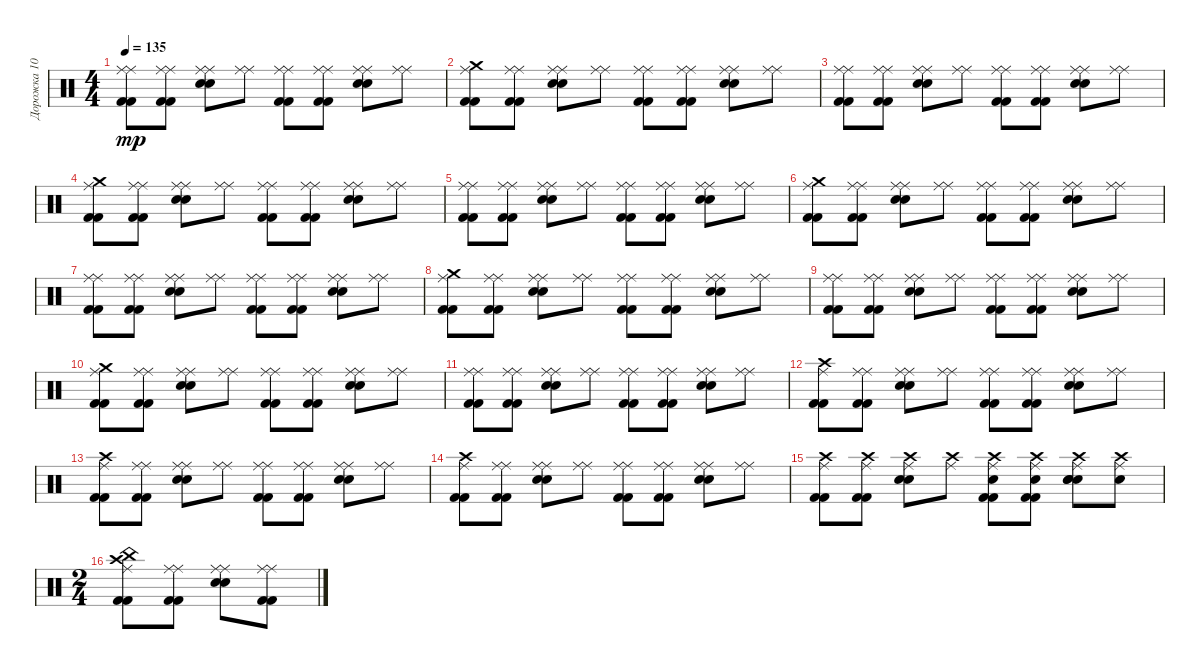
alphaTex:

\track ("Дорожка 10" "Дорожка 10") {instrument percussion}
\staff {score}
\articulation defaults
\ts (4 4)
\tempo 135
\clef neutral
\ks c
("Kick (hit) 2" "Ride (middle)" "Kick (hit) 2" "Ride (middle)").8{dy mp} ("Kick (hit) 2" "Ride (middle)" "Kick (hit) 2" "Ride (middle)").8 ("Snare (hit) 2" "Ride (middle)" "Snare (hit) 2" "Ride (middle)").8 ("Ride (middle)" "Ride (middle)").8 ("Kick (hit) 2" "Ride (middle)" "Kick (hit) 2" "Ride (middle)").8 ("Kick (hit) 2" "Ride (middle)" "Kick (hit) 2" "Ride (middle)").8 ("Snare (hit) 2" "Ride (middle)" "Snare (hit) 2" "Ride (middle)").8 ("Ride (middle)" "Ride (middle)").8 |
("Kick (hit) 2" "Ride (middle)" "Kick (hit) 2" "Crash medium (hit)").8 ("Kick (hit) 2" "Ride (middle)" "Kick (hit) 2" "Ride (middle)").8 ("Snare (hit) 2" "Ride (middle)" "Snare (hit) 2" "Ride (middle)").8 ("Ride (middle)" "Ride (middle)").8 ("Kick (hit) 2" "Ride (middle)" "Kick (hit) 2" "Ride (middle)").8 ("Kick (hit) 2" "Ride (middle)" "Kick (hit) 2" "Ride (middle)").8 ("Snare (hit) 2" "Ride (middle)" "Snare (hit) 2" "Ride (middle)").8 ("Ride (middle)" "Ride (middle)").8 |
("Kick (hit) 2" "Ride (middle)" "Kick (hit) 2" "Ride (middle)").8 ("Kick (hit) 2" "Ride (middle)" "Kick (hit) 2" "Ride (middle)").8 ("Snare (hit) 2" "Ride (middle)" "Snare (hit) 2" "Ride (middle)").8 ("Ride (middle)" "Ride (middle)").8 ("Kick (hit) 2" "Ride (middle)" "Kick (hit) 2" "Ride (middle)").8 ("Kick (hit) 2" "Ride (middle)" "Kick (hit) 2" "Ride (middle)").8 ("Snare (hit) 2" "Ride (middle)" "Snare (hit) 2" "Ride (middle)").8 ("Ride (middle)" "Ride (middle)").8 |
("Kick (hit) 2" "Ride (middle)" "Kick (hit) 2" "Crash medium (hit)").8 ("Kick (hit) 2" "Ride (middle)" "Kick (hit) 2" "Ride (middle)").8 ("Snare (hit) 2" "Ride (middle)" "Snare (hit) 2" "Ride (middle)").8 ("Ride (middle)" "Ride (middle)").8 ("Kick (hit) 2" "Ride (middle)" "Kick (hit) 2" "Ride (middle)").8 ("Kick (hit) 2" "Ride (middle)" "Kick (hit) 2" "Ride (middle)").8 ("Snare (hit) 2" "Ride (middle)" "Snare (hit) 2" "Ride (middle)").8 ("Ride (middle)" "Ride (middle)").8 |
("Kick (hit) 2" "Ride (middle)" "Kick (hit) 2" "Ride (middle)").8 ("Kick (hit) 2" "Ride (middle)" "Kick (hit) 2" "Ride (middle)").8 ("Snare (hit) 2" "Ride (middle)" "Snare (hit) 2" "Ride (middle)").8 ("Ride (middle)" "Ride (middle)").8 ("Kick (hit) 2" "Ride (middle)" "Kick (hit) 2" "Ride (middle)").8 ("Kick (hit) 2" "Ride (middle)" "Kick (hit) 2" "Ride (middle)").8 ("Snare (hit) 2" "Ride (middle)" "Snare (hit) 2" "Ride (middle)").8 ("Ride (middle)" "Ride (middle)").8 |
("Kick (hit) 2" "Ride (middle)" "Kick (hit) 2" "Crash medium (hit)").8 ("Kick (hit) 2" "Ride (middle)" "Kick (hit) 2" "Ride (middle)").8 ("Snare (hit) 2" "Ride (middle)" "Snare (hit) 2" "Ride (middle)").8 ("Ride (middle)" "Ride (middle)").8 ("Kick (hit) 2" "Ride (middle)" "Kick (hit) 2" "Ride (middle)").8 ("Kick (hit) 2" "Ride (middle)" "Kick (hit) 2" "Ride (middle)").8 ("Snare (hit) 2" "Ride (middle)" "Snare (hit) 2" "Ride (middle)").8 ("Ride (middle)" "Ride (middle)").8 |
("Kick (hit) 2" "Ride (middle)" "Kick (hit) 2" "Ride (middle)").8 ("Kick (hit) 2" "Ride (middle)" "Kick (hit) 2" "Ride (middle)").8 ("Snare (hit) 2" "Ride (middle)" "Snare (hit) 2" "Ride (middle)").8 ("Ride (middle)" "Ride (middle)").8 ("Kick (hit) 2" "Ride (middle)" "Kick (hit) 2" "Ride (middle)").8 ("Kick (hit) 2" "Ride (middle)" "Kick (hit) 2" "Ride (middle)").8 ("Snare (hit) 2" "Ride (middle)" "Snare (hit) 2" "Ride (middle)").8 ("Ride (middle)" "Ride (middle)").8 |
("Kick (hit) 2" "Ride (middle)" "Kick (hit) 2" "Crash medium (hit)").8 ("Kick (hit) 2" "Ride (middle)" "Kick (hit) 2" "Ride (middle)").8 ("Snare (hit) 2" "Ride (middle)" "Snare (hit) 2" "Ride (middle)").8 ("Ride (middle)" "Ride (middle)").8 ("Kick (hit) 2" "Ride (middle)" "Kick (hit) 2" "Ride (middle)").8 ("Kick (hit) 2" "Ride (middle)" "Kick (hit) 2" "Ride (middle)").8 ("Snare (hit) 2" "Ride (middle)" "Snare (hit) 2" "Ride (middle)").8 ("Ride (middle)" "Ride (middle)").8 |
("Kick (hit) 2" "Ride (middle)" "Kick (hit) 2" "Ride (middle)").8 ("Kick (hit) 2" "Ride (middle)" "Kick (hit) 2" "Ride (middle)").8 ("Snare (hit) 2" "Ride (middle)" "Snare (hit) 2" "Ride (middle)").8 ("Ride (middle)" "Ride (middle)").8 ("Kick (hit) 2" "Ride (middle)" "Kick (hit) 2" "Ride (middle)").8 ("Kick (hit) 2" "Ride (middle)" "Kick (hit) 2" "Ride (middle)").8 ("Snare (hit) 2" "Ride (middle)" "Snare (hit) 2" "Ride (middle)").8 ("Ride (middle)" "Ride (middle)").8 |
("Kick (hit) 2" "Ride (middle)" "Kick (hit) 2" "Crash medium (hit)").8 ("Kick (hit) 2" "Ride (middle)" "Kick (hit) 2" "Ride (middle)").8 ("Snare (hit) 2" "Ride (middle)" "Snare (hit) 2" "Ride (middle)").8 ("Ride (middle)" "Ride (middle)").8 ("Kick (hit) 2" "Ride (middle)" "Kick (hit) 2" "Ride (middle)").8 ("Kick (hit) 2" "Ride (middle)" "Kick (hit) 2" "Ride (middle)").8 ("Snare (hit) 2" "Ride (middle)" "Snare (hit) 2" "Ride (middle)").8 ("Ride (middle)" "Ride (middle)").8 |
("Kick (hit) 2" "Ride (middle)" "Kick (hit) 2" "Ride (middle)").8 ("Kick (hit) 2" "Ride (middle)" "Kick (hit) 2" "Ride (middle)").8 ("Snare (hit) 2" "Ride (middle)" "Snare (hit) 2" "Ride (middle)").8 ("Ride (middle)" "Ride (middle)").8 ("Kick (hit) 2" "Ride (middle)" "Kick (hit) 2" "Ride (middle)").8 ("Kick (hit) 2" "Ride (middle)" "Kick (hit) 2" "Ride (middle)").8 ("Snare (hit) 2" "Ride (middle)" "Snare (hit) 2" "Ride (middle)").8 ("Ride (middle)" "Ride (middle)").8 |
("Kick (hit) 2" "Crash high (hit)" "Kick (hit) 2" "Ride (middle)").8 ("Kick (hit) 2" "Ride (middle)" "Kick (hit) 2" "Ride (middle)").8 ("Snare (hit) 2" "Ride (middle)" "Snare (hit) 2" "Ride (middle)").8 ("Ride (middle)" "Ride (middle)").8 ("Kick (hit) 2" "Ride (middle)" "Kick (hit) 2" "Ride (middle)").8 ("Kick (hit) 2" "Ride (middle)" "Kick (hit) 2" "Ride (middle)").8 ("Snare (hit) 2" "Ride (middle)" "Snare (hit) 2" "Ride (middle)").8 ("Ride (middle)" "Ride (middle)").8 |
("Kick (hit) 2" "Crash high (hit)" "Kick (hit) 2" "Ride (middle)").8 ("Kick (hit) 2" "Ride (middle)" "Kick (hit) 2" "Ride (middle)").8 ("Snare (hit) 2" "Ride (middle)" "Snare (hit) 2" "Ride (middle)").8 ("Ride (middle)" "Ride (middle)").8 ("Kick (hit) 2" "Ride (middle)" "Kick (hit) 2" "Ride (middle)").8 ("Kick (hit) 2" "Ride (middle)" "Kick (hit) 2" "Ride (middle)").8 ("Snare (hit) 2" "Ride (middle)" "Snare (hit) 2" "Ride (middle)").8 ("Ride (middle)" "Ride (middle)").8 |
("Kick (hit) 2" "Crash high (hit)" "Kick (hit) 2" "Ride (middle)").8 ("Kick (hit) 2" "Ride (middle)" "Kick (hit) 2" "Ride (middle)").8 ("Snare (hit) 2" "Ride (middle)" "Snare (hit) 2" "Ride (middle)").8 ("Ride (middle)" "Ride (middle)").8 ("Kick (hit) 2" "Ride (middle)" "Kick (hit) 2" "Ride (middle)").8 ("Kick (hit) 2" "Ride (middle)" "Kick (hit) 2" "Ride (middle)").8 ("Snare (hit) 2" "Ride (middle)" "Snare (hit) 2" "Ride (middle)").8 ("Ride (middle)" "Ride (middle)").8 |
("Kick (hit) 2" "Crash high (hit)" "Kick (hit) 2" "Ride (middle)").8 ("Kick (hit) 2" "Crash high (hit)" "Kick (hit) 2" "Ride (middle)").8 ("Snare (hit) 2" "Crash high (hit)" "Snare (hit) 2" "Ride (middle)").8 ("Ride (middle)" "Crash high (hit)").8 ("Kick (hit) 2" "Crash high (hit)" "Kick (hit) 2" "Ride (middle)" "Snare (hit) 2").8 ("Kick (hit) 2" "Crash high (hit)" "Kick (hit) 2" "Ride (middle)" "Snare (hit) 2").8 ("Snare (hit) 2" "Crash high (hit)" "Snare (hit) 2" "Ride (middle)" "Snare (hit) 2").8 ("Ride (middle)" "Crash high (hit)" "Snare (hit) 2").8 |
\ts (2 4)
("Kick (hit) 2" "Crash high (hit)" "Kick (hit) 2" "Ride (middle)" "China (hit)").8 ("Kick (hit) 2" "Ride (middle)" "Kick (hit) 2" "Ride (middle)").8 ("Snare (hit) 2" "Ride (middle)" "Snare (hit) 2" "Ride (middle)").8 ("Kick (hit) 2" "Ride (middle)" "Kick (hit) 2" "Ride (middle)").8
